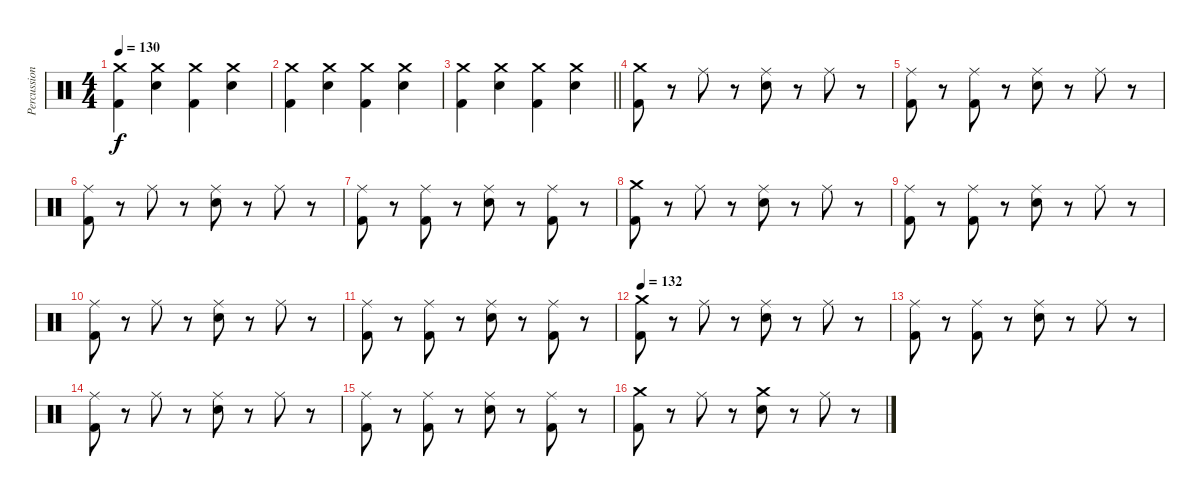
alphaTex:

\track ("Percussion" "Percussion") {instrument percussion}
\staff {score}
\articulation defaults
\ts (4 4)
\tempo 130
\clef neutral
\ks c
("Crash medium (hit)" "Kick (hit) 2").4{dy f} ("Crash medium (hit)" "Electric Snare (hit)").4 ("Crash medium (hit)" "Kick (hit) 2").4 ("Crash medium (hit)" "Electric Snare (hit)").4 |
("Crash medium (hit)" "Kick (hit) 2").4 ("Crash medium (hit)" "Electric Snare (hit)").4 ("Crash medium (hit)" "Kick (hit) 2").4 ("Crash medium (hit)" "Electric Snare (hit)").4 |
\barLineRight lightlight
("Crash medium (hit)" "Kick (hit) 2").4 ("Crash medium (hit)" "Electric Snare (hit)").4 ("Crash medium (hit)" "Kick (hit) 2").4 ("Crash medium (hit)" "Electric Snare (hit)").4 |
\section ("" "")
("Crash medium (hit)" "Kick (hit) 2").8 r.8 "Ride (middle)".8 r.8 ("Ride (middle)" "Electric Snare (hit)").8 r.8 "Ride (middle)".8 r.8 |
("Ride (middle)" "Kick (hit) 2").8 r.8 ("Ride (middle)" "Kick (hit) 2").8 r.8 ("Ride (middle)" "Electric Snare (hit)").8 r.8 "Ride (middle)".8 r.8 |
("Ride (middle)" "Kick (hit) 2").8 r.8 "Ride (middle)".8 r.8 ("Ride (middle)" "Electric Snare (hit)").8 r.8 "Ride (middle)".8 r.8 |
("Ride (middle)" "Kick (hit) 2").8 r.8 ("Ride (middle)" "Kick (hit) 2").8 r.8 ("Ride (middle)" "Electric Snare (hit)").8 r.8 ("Ride (middle)" "Kick (hit) 2").8 r.8 |
("Crash medium (hit)" "Kick (hit) 2").8 r.8 "Ride (middle)".8 r.8 ("Ride (middle)" "Electric Snare (hit)").8 r.8 "Ride (middle)".8 r.8 |
("Ride (middle)" "Kick (hit) 2").8 r.8 ("Ride (middle)" "Kick (hit) 2").8 r.8 ("Ride (middle)" "Electric Snare (hit)").8 r.8 "Ride (middle)".8 r.8 |
("Ride (middle)" "Kick (hit) 2").8 r.8 "Ride (middle)".8 r.8 ("Ride (middle)" "Electric Snare (hit)").8 r.8 "Ride (middle)".8 r.8 |
("Ride (middle)" "Kick (hit) 2").8 r.8 ("Ride (middle)" "Kick (hit) 2").8 r.8 ("Ride (middle)" "Electric Snare (hit)").8 r.8 ("Ride (middle)" "Kick (hit) 2").8 r.8 |
\tempo 132
("Crash medium (hit)" "Kick (hit) 2").8 r.8 "Ride (middle)".8 r.8 ("Ride (middle)" "Electric Snare (hit)").8 r.8 "Ride (middle)".8 r.8 |
("Ride (middle)" "Kick (hit) 2").8 r.8 ("Ride (middle)" "Kick (hit) 2").8 r.8 ("Ride (middle)" "Electric Snare (hit)").8 r.8 "Ride (middle)".8 r.8 |
("Ride (middle)" "Kick (hit) 2").8 r.8 "Ride (middle)".8 r.8 ("Ride (middle)" "Electric Snare (hit)").8 r.8 "Ride (middle)".8 r.8 |
("Ride (middle)" "Kick (hit) 2").8 r.8 ("Ride (middle)" "Kick (hit) 2").8 r.8 ("Ride (middle)" "Electric Snare (hit)").8 r.8 ("Ride (middle)" "Kick (hit) 2").8 r.8 |
("Crash medium (hit)" "Kick (hit) 2").8 r.8 "Ride (middle)".8 r.8 ("Crash medium (hit)" "Electric Snare (hit)").8 r.8 "Ride (middle)".8 r.8
